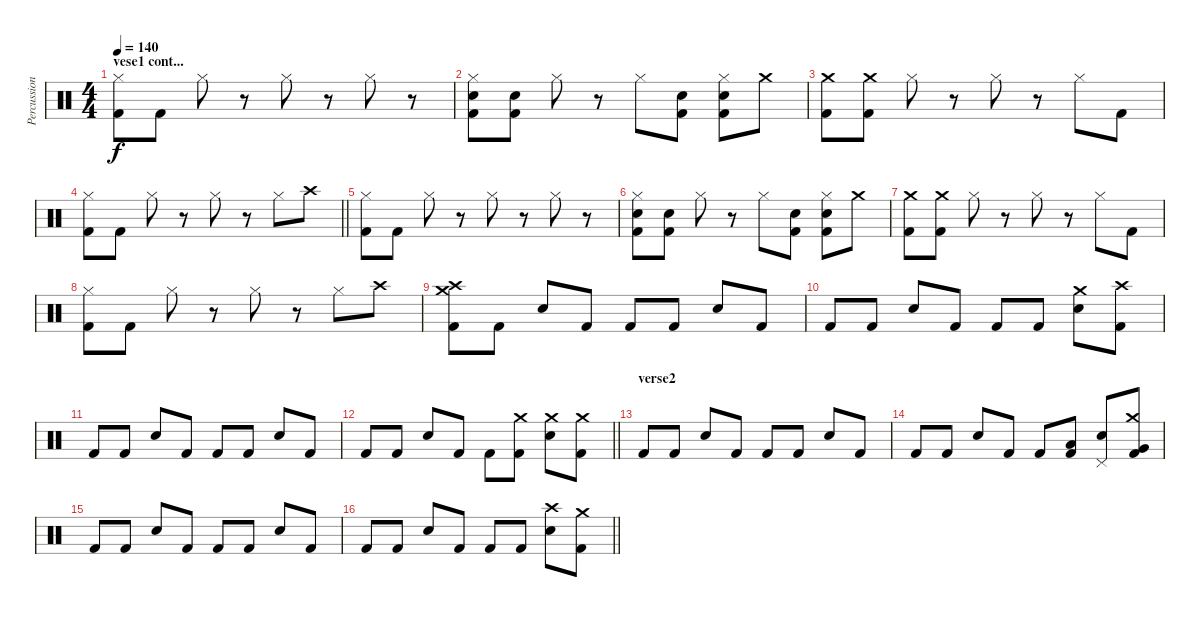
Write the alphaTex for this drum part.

\track ("Percussion" "Percussion") {instrument percussion}
\staff {score}
\articulation defaults
\ts (4 4)
\section ("" "vese1 cont...")
\tempo 140
\clef neutral
\ks c
("Hi-Hat (closed)" "Kick (hit) 2").8{dy f} "Kick (hit) 2".8 "Hi-Hat (closed)".8 r.8 "Hi-Hat (closed)".8 r.8 "Hi-Hat (closed)".8 r.8 |
("Hi-Hat (closed)" "Electric Snare (hit)" "Kick (hit) 2").8 ("Electric Snare (hit)" "Kick (hit) 2").8 "Hi-Hat (closed)".8 r.8 "Hi-Hat (closed)".8 ("Electric Snare (hit)" "Kick (hit) 2").8 ("Hi-Hat (closed)" "Electric Snare (hit)" "Kick (hit) 2").8 "Crash medium (hit)".8 |
("Crash medium (hit)" "Kick (hit) 2").8 ("Crash medium (hit)" "Kick (hit) 2").8 "Hi-Hat (closed)".8 r.8 "Hi-Hat (closed)".8 r.8 "Hi-Hat (closed)".8 "Kick (hit) 2".8 |
\barLineRight lightlight
("Hi-Hat (closed)" "Kick (hit) 2").8 "Kick (hit) 2".8 "Hi-Hat (closed)".8 r.8 "Hi-Hat (closed)".8 r.8 "Hi-Hat (closed)".8 "Crash high (hit)".8 |
("Hi-Hat (closed)" "Kick (hit) 2").8 "Kick (hit) 2".8 "Hi-Hat (closed)".8 r.8 "Hi-Hat (closed)".8 r.8 "Hi-Hat (closed)".8 r.8 |
("Hi-Hat (closed)" "Electric Snare (hit)" "Kick (hit) 2").8 ("Electric Snare (hit)" "Kick (hit) 2").8 "Hi-Hat (closed)".8 r.8 "Hi-Hat (closed)".8 ("Electric Snare (hit)" "Kick (hit) 2").8 ("Hi-Hat (closed)" "Electric Snare (hit)" "Kick (hit) 2").8 "Crash medium (hit)".8 |
("Crash medium (hit)" "Kick (hit) 2").8 ("Crash medium (hit)" "Kick (hit) 2").8 "Hi-Hat (closed)".8 r.8 "Hi-Hat (closed)".8 r.8 "Hi-Hat (closed)".8 "Kick (hit) 2".8 |
("Hi-Hat (closed)" "Kick (hit) 2").8 "Kick (hit) 2".8 "Hi-Hat (closed)".8 r.8 "Hi-Hat (closed)".8 r.8 "Hi-Hat (closed)".8 "Crash high (hit)".8 |
("Kick (hit) 2" "Crash medium (hit)" "Crash high (hit)").8 "Kick (hit) 2".8 "Electric Snare (hit)".8 "Kick (hit) 2".8 "Kick (hit) 2".8 "Kick (hit) 2".8 "Electric Snare (hit)".8 "Kick (hit) 2".8 |
"Kick (hit) 2".8 "Kick (hit) 2".8 "Electric Snare (hit)".8 "Kick (hit) 2".8 "Kick (hit) 2".8 "Kick (hit) 2".8 ("Electric Snare (hit)" "Crash medium (hit)").8 ("Kick (hit) 2" "Crash high (hit)").8 |
"Kick (hit) 2".8 "Kick (hit) 2".8 "Electric Snare (hit)".8 "Kick (hit) 2".8 "Kick (hit) 2".8 "Kick (hit) 2".8 "Electric Snare (hit)".8 "Kick (hit) 2".8 |
\barLineRight lightlight "Kick (hit) 2".8 "Kick (hit) 2".8 "Electric Snare (hit)".8 "Kick (hit) 2".8 "Kick (hit) 2".8
("Kick (hit) 2" "Crash medium (hit)").8 ("Electric Snare (hit)" "Crash medium (hit)").8 ("Kick (hit) 2" "Crash medium (hit)").8 |
\section ("" "verse2")
"Kick (hit) 2".8 "Kick (hit) 2".8 "Electric Snare (hit)".8 "Kick (hit) 2".8 "Kick (hit) 2".8 "Kick (hit) 2".8 "Electric Snare (hit)".8 "Kick (hit) 2".8 |
"Kick (hit) 2".8 "Kick (hit) 2".8 "Electric Snare (hit)".8 "Kick (hit) 2".8 "Kick (hit) 2".8 ("Kick (hit) 2" "Low Tom (hit)").8 ("Electric Snare (hit)" "Pedal Hi-Hat (hit)").8 ("Kick (hit) 2" "Crash medium (hit)" "Very Low Tom (hit)").8 |
"Kick (hit) 2".8 "Kick (hit) 2".8 "Electric Snare (hit)".8 "Kick (hit) 2".8 "Kick (hit) 2".8 "Kick (hit) 2".8 "Electric Snare (hit)".8 "Kick (hit) 2".8 |
\barLineRight lightlight "Kick (hit) 2".8 "Kick (hit) 2".8 "Electric Snare (hit)".8 "Kick (hit) 2".8 "Kick (hit) 2".8 "Kick (hit) 2".8
("Electric Snare (hit)" "Crash high (hit)").8 ("Kick (hit) 2" "Crash medium (hit)").8
